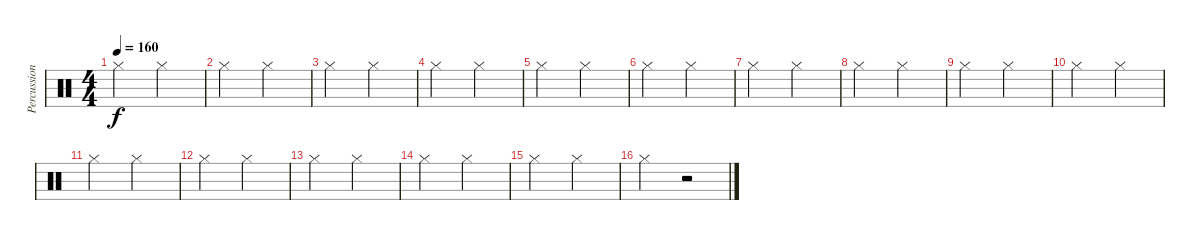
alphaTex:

\track ("Percussion" "Percussion") {instrument percussion}
\staff {score}
\articulation defaults
\ts (4 4)
\tempo 160
\clef neutral
\ks c "Hi-Hat (closed)".2{dy f} "Hi-Hat (closed)".2
|
"Hi-Hat (closed)".2 "Hi-Hat (closed)".2 |
"Hi-Hat (closed)".2 "Hi-Hat (closed)".2 |
"Hi-Hat (closed)".2 "Hi-Hat (closed)".2 |
"Hi-Hat (closed)".2 "Hi-Hat (closed)".2 |
"Hi-Hat (closed)".2 "Hi-Hat (closed)".2 |
"Hi-Hat (closed)".2 "Hi-Hat (closed)".2 |
"Hi-Hat (closed)".2 "Hi-Hat (closed)".2 |
"Hi-Hat (closed)".2 "Hi-Hat (closed)".2 |
"Hi-Hat (closed)".2 "Hi-Hat (closed)".2 |
"Hi-Hat (closed)".2 "Hi-Hat (closed)".2 |
"Hi-Hat (closed)".2 "Hi-Hat (closed)".2 |
"Hi-Hat (closed)".2 "Hi-Hat (closed)".2 |
"Hi-Hat (closed)".2 "Hi-Hat (closed)".2 |
"Hi-Hat (closed)".2 "Hi-Hat (closed)".2 |
"Hi-Hat (closed)".2 r.2
